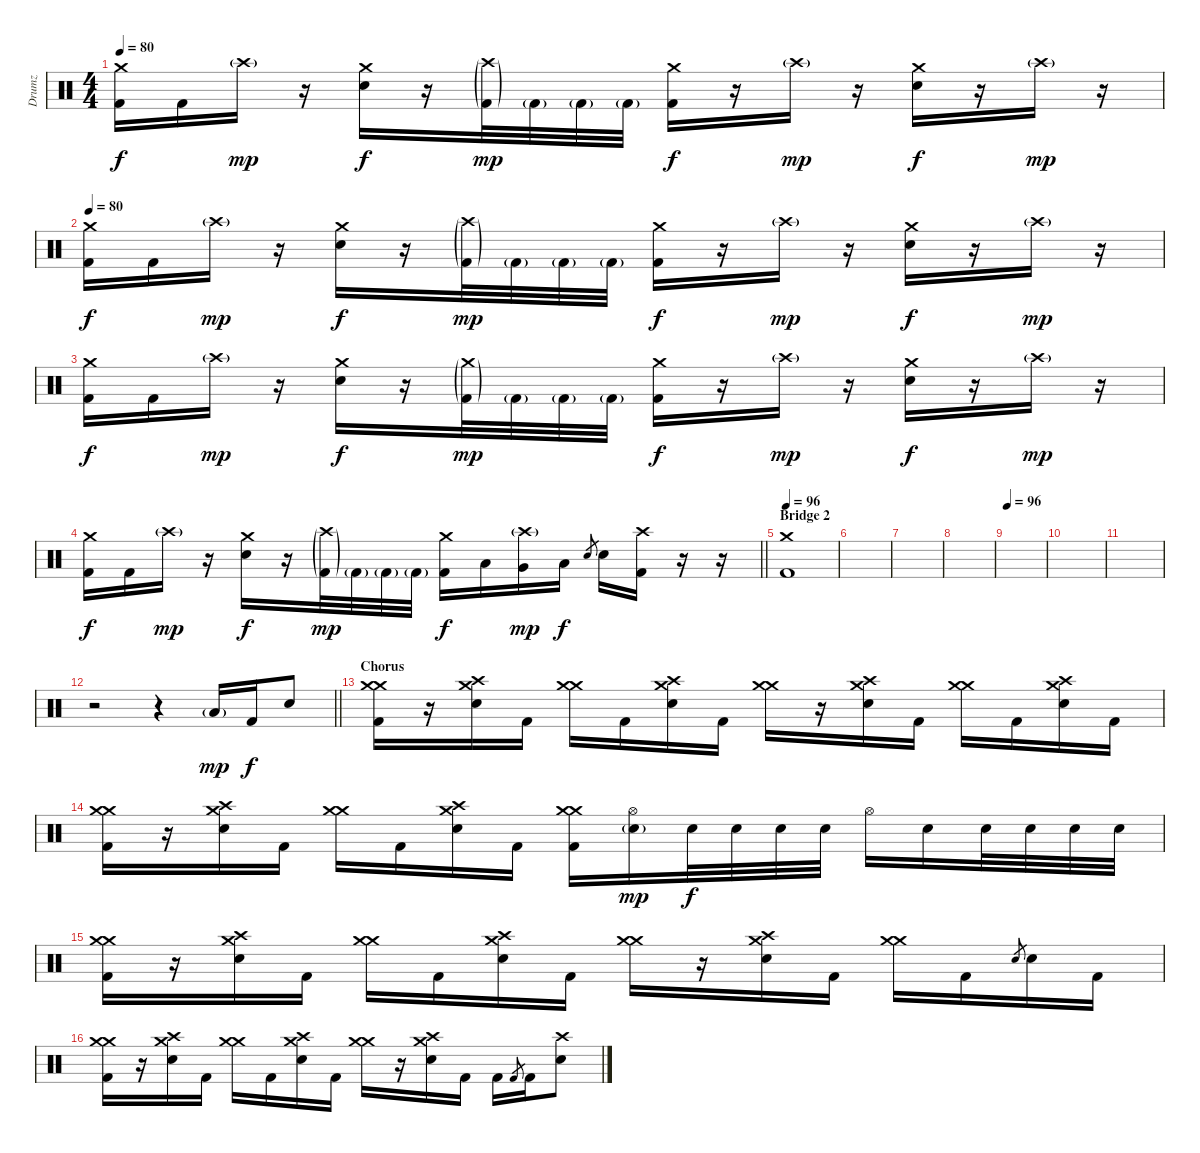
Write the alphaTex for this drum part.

\track ("Drumz" "Drumz") {instrument percussion}
\staff {score}
\articulation defaults
\ts (4 4)
\tempo 80
\clef neutral
\ks c
("Crash medium (hit)" "Kick (hit) 2").16{dy f} "Kick (hit) 2".16 "Crash high (hit)"{g}.16{dy mp} r.16 ("Crash medium (hit)" "Electric Snare (hit)").16{dy f} r.16 ("Crash high (hit)"{g} "Kick (hit) 2"{g}).32{dy mp} "Kick (hit) 2"{g}.32 "Kick (hit) 2"{g}.32 "Kick (hit) 2"{g}.32 ("Crash medium (hit)" "Kick (hit) 2").16{dy f} r.16 "Crash high (hit)"{g}.16{dy mp} r.16 ("Crash medium (hit)" "Electric Snare (hit)").16{dy f} r.16 "Crash high (hit)"{g}.16{dy mp} r.16 |
\tempo 80
("Crash medium (hit)" "Kick (hit) 2").16{dy f} "Kick (hit) 2".16 "Crash high (hit)"{g}.16{dy mp} r.16 ("Crash medium (hit)" "Electric Snare (hit)").16{dy f} r.16 ("Crash high (hit)"{g} "Kick (hit) 2"{g}).32{dy mp} "Kick (hit) 2"{g}.32 "Kick (hit) 2"{g}.32 "Kick (hit) 2"{g}.32 ("Crash medium (hit)" "Kick (hit) 2").16{dy f} r.16 "Crash high (hit)"{g}.16{dy mp} r.16 ("Crash medium (hit)" "Electric Snare (hit)").16{dy f} r.16 "Crash high (hit)"{g}.16{dy mp} r.16 |
("Crash medium (hit)" "Kick (hit) 2").16{dy f} "Kick (hit) 2".16 "Crash high (hit)"{g}.16{dy mp} r.16 ("Crash medium (hit)" "Electric Snare (hit)").16{dy f} r.16 ("Crash medium (hit)"{g} "Kick (hit) 2"{g}).32{dy mp} "Kick (hit) 2"{g}.32 "Kick (hit) 2"{g}.32 "Kick (hit) 2"{g}.32 ("Crash medium (hit)" "Kick (hit) 2").16{dy f} r.16 "Crash high (hit)"{g}.16{dy mp} r.16 ("Crash medium (hit)" "Electric Snare (hit)").16{dy f} r.16 "Crash high (hit)"{g}.16{dy mp} r.16 |
\barLineRight lightlight
("Crash medium (hit)" "Kick (hit) 2").16{dy f} "Kick (hit) 2".16 "Crash high (hit)"{g}.16{dy mp} r.16 ("Crash medium (hit)" "Electric Snare (hit)").16{dy f} r.16 ("Crash high (hit)"{g} "Kick (hit) 2"{g}).32{dy mp} "Kick (hit) 2"{g}.32 "Kick (hit) 2"{g}.32 "Kick (hit) 2"{g}.32 ("Crash medium (hit)" "Kick (hit) 2").16{dy f} "Low Floor Tom (hit)".16 ("Crash high (hit)"{g} "Very Low Tom (hit)").16{dy mp} "Low Floor Tom (hit)".16{dy f} "Electric Snare (hit)".8{gr} "Electric Snare (hit)".16 ("Crash high (hit)" "Kick (hit) 2").16 r.16 r.16 |
\section ("" "Bridge 2")
\tempo 96
("Crash medium (hit)" "Kick (hit) 2").1 |
|
|
|
\tempo 96
|
|
|
\barLineRight lightlight
r.2 r.4 "Low Floor Tom (hit)"{g}.16{dy mp} "Kick (hit) 2".16{dy f} "Electric Snare (hit)".8 |
\section ("" "Chorus")
("Crash medium (hit)" "Crash medium (hit)" "Kick (hit) 2").16 r.16 ("Crash high (hit)" "Crash medium (hit)" "Electric Snare (hit)").16 "Kick (hit) 2".16 ("Crash medium (hit)" "Crash medium (hit)").16 "Kick (hit) 2".16 ("Crash high (hit)" "Crash medium (hit)" "Electric Snare (hit)").16 "Kick (hit) 2".16 ("Crash medium (hit)" "Crash medium (hit)").16 r.16 ("Crash high (hit)" "Crash medium (hit)" "Electric Snare (hit)").16 "Kick (hit) 2".16 ("Crash medium (hit)" "Crash medium (hit)").16 "Kick (hit) 2".16 ("Crash high (hit)" "Crash medium (hit)" "Electric Snare (hit)").16 "Kick (hit) 2".16 |
("Crash medium (hit)" "Crash medium (hit)" "Kick (hit) 2").16 r.16 ("Crash high (hit)" "Crash medium (hit)" "Electric Snare (hit)").16 "Kick (hit) 2".16 ("Crash medium (hit)" "Crash medium (hit)").16 "Kick (hit) 2".16 ("Crash high (hit)" "Crash medium (hit)" "Electric Snare (hit)").16 "Kick (hit) 2".16 ("Crash medium (hit)" "Crash medium (hit)" "Kick (hit) 2").16 ("Hi-Hat (open)" "Electric Snare (hit)"{g}).16{dy mp} "Electric Snare (hit)".32{dy f} "Electric Snare (hit)".32 "Electric Snare (hit)".32 "Electric Snare (hit)".32 "Hi-Hat (open)".16 "Electric Snare (hit)".16 "Electric Snare (hit)".32 "Electric Snare (hit)".32 "Electric Snare (hit)".32 "Electric Snare (hit)".32 |
("Crash medium (hit)" "Crash medium (hit)" "Kick (hit) 2").16 r.16 ("Crash high (hit)" "Crash medium (hit)" "Electric Snare (hit)").16 "Kick (hit) 2".16 ("Crash medium (hit)" "Crash medium (hit)").16 "Kick (hit) 2".16 ("Crash high (hit)" "Crash medium (hit)" "Electric Snare (hit)").16 "Kick (hit) 2".16 ("Crash medium (hit)" "Crash medium (hit)").16 r.16 ("Crash high (hit)" "Crash medium (hit)" "Electric Snare (hit)").16 "Kick (hit) 2".16 ("Crash medium (hit)" "Crash medium (hit)").16 "Kick (hit) 2".16 "Electric Snare (hit)".8{gr} "Electric Snare (hit)".16 "Kick (hit) 2".16 |
("Crash medium (hit)" "Crash medium (hit)" "Kick (hit) 2").16 r.16 ("Crash high (hit)" "Crash medium (hit)" "Electric Snare (hit)").16 "Kick (hit) 2".16 ("Crash medium (hit)" "Crash medium (hit)").16 "Kick (hit) 2".16 ("Crash high (hit)" "Crash medium (hit)" "Electric Snare (hit)").16 "Kick (hit) 2".16 ("Crash medium (hit)" "Crash medium (hit)").16 r.16 ("Crash high (hit)" "Crash medium (hit)" "Electric Snare (hit)").16 "Kick (hit) 2".16 "Kick (hit) 2".16 "Kick (hit) 2".8{gr} "Kick (hit) 2".16 ("Crash high (hit)" "Electric Snare (hit)").8
